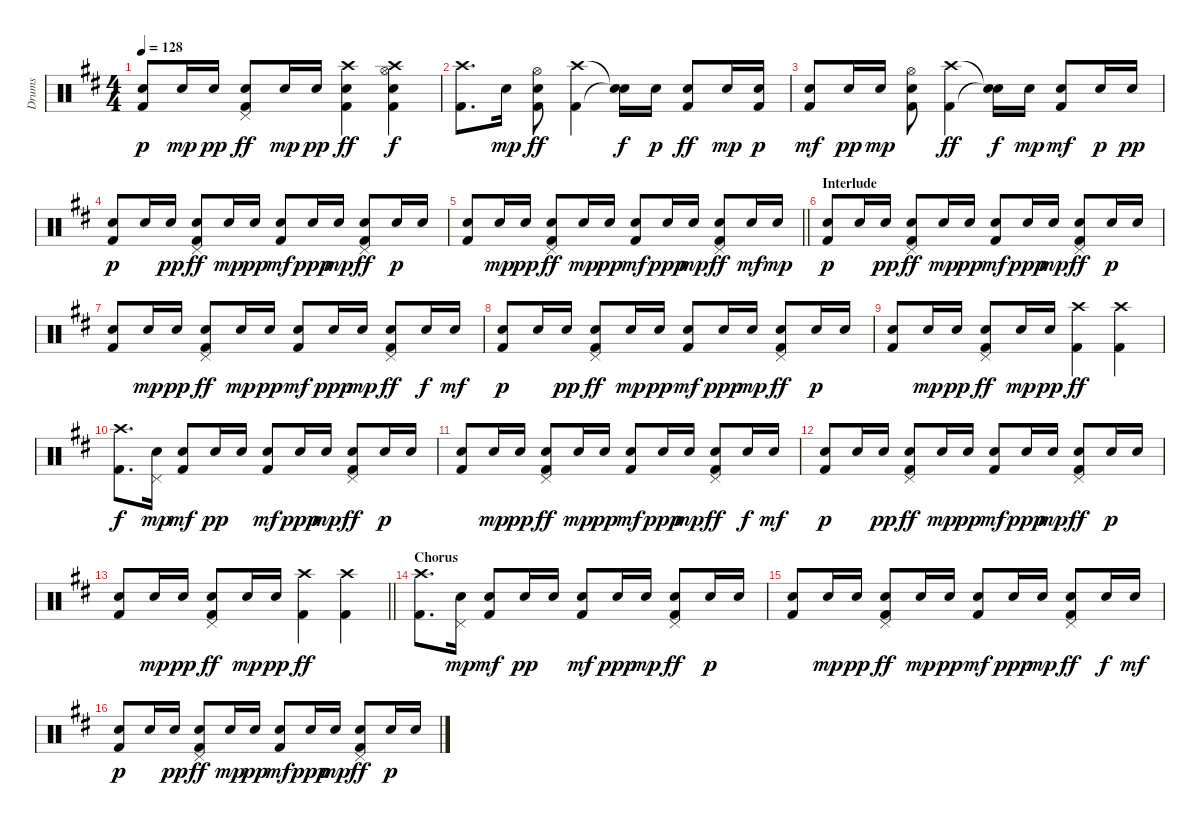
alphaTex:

\track ("Drums" "Drums") {instrument percussion}
\staff {score}
\articulation defaults
\ts (4 4)
\tempo 128
\clef neutral
\ks d
("Kick (hit) 2" "Snare (hit) 2").8{dy p} "Snare (hit) 2".16{dy mp} "Snare (hit) 2".16{dy pp} ("Kick (hit) 2" "Snare (hit) 2" "Pedal Hi-Hat (hit)").8{dy ff} "Snare (hit) 2".16{dy mp} "Snare (hit) 2".16{dy pp} ("Kick (hit) 2" "Snare (hit) 2" "Crash high (hit)").4{dy ff} ("Kick (hit) 2" "Snare (hit) 2" "Hi-Hat (open)" "Crash high (hit)").4{dy f} |
("Kick (hit) 2" "Crash high (hit)").8{d} "Snare (hit) 2".16{dy mp} ("Kick (hit) 2" "Snare (hit) 2" "Hi-Hat (open)").8{dy ff} ("Kick (hit) 2" "Crash high (hit)").4 ("Snare (hit)"{t} "Snare (hit)"{t}).16{dy f} "Snare (hit) 2".16{dy p} ("Kick (hit) 2" "Snare (hit) 2").8{dy ff} "Snare (hit) 2".16{dy mp} ("Kick (hit) 2" "Snare (hit) 2").16{dy p} |
("Kick (hit) 2" "Snare (hit) 2").8{dy mf} "Snare (hit) 2".16{dy pp} "Snare (hit) 2".16{dy mp} ("Kick (hit) 2" "Snare (hit) 2" "Hi-Hat (open)").8 ("Kick (hit) 2" "Crash high (hit)").4{dy ff} ("Snare (hit)"{t} "Snare (hit)"{t}).16{dy f} "Snare (hit) 2".16{dy mp} ("Kick (hit) 2" "Snare (hit) 2").8{dy mf} "Snare (hit) 2".16{dy p} "Snare (hit) 2".16{dy pp} |
("Kick (hit) 2" "Snare (hit) 2").8{dy p} "Snare (hit) 2".16 "Snare (hit) 2".16{dy pp} ("Kick (hit) 2" "Snare (hit) 2" "Pedal Hi-Hat (hit)").8{dy ff} "Snare (hit) 2".16{dy mp} "Snare (hit) 2".16{dy pp} ("Kick (hit) 2" "Snare (hit) 2").8{dy mf} "Snare (hit) 2".16{dy ppp} "Snare (hit) 2".16{dy mp} ("Kick (hit) 2" "Snare (hit) 2" "Pedal Hi-Hat (hit)").8{dy ff} "Snare (hit) 2".16{dy p} "Snare (hit) 2".16 |
\barLineRight lightlight
("Kick (hit) 2" "Snare (hit) 2").8 "Snare (hit) 2".16{dy mp} "Snare (hit) 2".16{dy pp} ("Kick (hit) 2" "Snare (hit) 2" "Pedal Hi-Hat (hit)").8{dy ff} "Snare (hit) 2".16{dy mp} "Snare (hit) 2".16{dy pp} ("Kick (hit) 2" "Snare (hit) 2").8{dy mf} "Snare (hit) 2".16{dy ppp} "Snare (hit) 2".16{dy mp} ("Kick (hit) 2" "Snare (hit) 2" "Pedal Hi-Hat (hit)").8{dy ff} "Snare (hit) 2".16{dy mf} "Snare (hit) 2".16{dy mp} |
\section ("" "Interlude")
("Kick (hit) 2" "Snare (hit) 2").8{dy p} "Snare (hit) 2".16 "Snare (hit) 2".16{dy pp} ("Kick (hit) 2" "Snare (hit) 2" "Pedal Hi-Hat (hit)").8{dy ff} "Snare (hit) 2".16{dy mp} "Snare (hit) 2".16{dy pp} ("Kick (hit) 2" "Snare (hit) 2").8{dy mf} "Snare (hit) 2".16{dy ppp} "Snare (hit) 2".16{dy mp} ("Kick (hit) 2" "Snare (hit) 2" "Pedal Hi-Hat (hit)").8{dy ff} "Snare (hit) 2".16{dy p} "Snare (hit) 2".16 |
("Kick (hit) 2" "Snare (hit) 2").8 "Snare (hit) 2".16{dy mp} "Snare (hit) 2".16{dy pp} ("Kick (hit) 2" "Snare (hit) 2" "Pedal Hi-Hat (hit)").8{dy ff} "Snare (hit) 2".16{dy mp} "Snare (hit) 2".16{dy pp} ("Kick (hit) 2" "Snare (hit) 2").8{dy mf} "Snare (hit) 2".16{dy ppp} "Snare (hit) 2".16{dy mp} ("Kick (hit) 2" "Snare (hit) 2" "Pedal Hi-Hat (hit)").8{dy ff} "Snare (hit) 2".16{dy f} "Snare (hit) 2".16{dy mf} |
("Kick (hit) 2" "Snare (hit) 2").8{dy p} "Snare (hit) 2".16 "Snare (hit) 2".16{dy pp} ("Kick (hit) 2" "Snare (hit) 2" "Pedal Hi-Hat (hit)").8{dy ff} "Snare (hit) 2".16{dy mp} "Snare (hit) 2".16{dy pp} ("Kick (hit) 2" "Snare (hit) 2").8{dy mf} "Snare (hit) 2".16{dy ppp} "Snare (hit) 2".16{dy mp} ("Kick (hit) 2" "Snare (hit) 2" "Pedal Hi-Hat (hit)").8{dy ff} "Snare (hit) 2".16{dy p} "Snare (hit) 2".16 |
("Kick (hit) 2" "Snare (hit) 2").8 "Snare (hit) 2".16{dy mp} "Snare (hit) 2".16{dy pp} ("Kick (hit) 2" "Snare (hit) 2" "Pedal Hi-Hat (hit)").8{dy ff} "Snare (hit) 2".16{dy mp} "Snare (hit) 2".16{dy pp} ("Kick (hit) 2" "Crash high (hit)").4{dy ff} ("Kick (hit) 2" "Crash high (hit)").4 |
("Kick (hit) 2" "Crash high (hit)").8{d dy f} ("Snare (hit) 2" "Pedal Hi-Hat (hit)").16{dy mp} ("Kick (hit) 2" "Snare (hit) 2").8{dy mf} "Snare (hit) 2".16{dy pp} "Snare (hit) 2".16 ("Kick (hit) 2" "Snare (hit) 2").8{dy mf} "Snare (hit) 2".16{dy ppp} "Snare (hit) 2".16{dy mp} ("Kick (hit) 2" "Snare (hit) 2" "Pedal Hi-Hat (hit)").8{dy ff} "Snare (hit) 2".16{dy p} "Snare (hit) 2".16 |
("Kick (hit) 2" "Snare (hit) 2").8 "Snare (hit) 2".16{dy mp} "Snare (hit) 2".16{dy pp} ("Kick (hit) 2" "Snare (hit) 2" "Pedal Hi-Hat (hit)").8{dy ff} "Snare (hit) 2".16{dy mp} "Snare (hit) 2".16{dy pp} ("Kick (hit) 2" "Snare (hit) 2").8{dy mf} "Snare (hit) 2".16{dy ppp} "Snare (hit) 2".16{dy mp} ("Kick (hit) 2" "Snare (hit) 2" "Pedal Hi-Hat (hit)").8{dy ff} "Snare (hit) 2".16{dy f} "Snare (hit) 2".16{dy mf} |
("Kick (hit) 2" "Snare (hit) 2").8{dy p} "Snare (hit) 2".16 "Snare (hit) 2".16{dy pp} ("Kick (hit) 2" "Snare (hit) 2" "Pedal Hi-Hat (hit)").8{dy ff} "Snare (hit) 2".16{dy mp} "Snare (hit) 2".16{dy pp} ("Kick (hit) 2" "Snare (hit) 2").8{dy mf} "Snare (hit) 2".16{dy ppp} "Snare (hit) 2".16{dy mp} ("Kick (hit) 2" "Snare (hit) 2" "Pedal Hi-Hat (hit)").8{dy ff} "Snare (hit) 2".16{dy p} "Snare (hit) 2".16 |
\barLineRight lightlight
("Kick (hit) 2" "Snare (hit) 2").8 "Snare (hit) 2".16{dy mp} "Snare (hit) 2".16{dy pp} ("Kick (hit) 2" "Snare (hit) 2" "Pedal Hi-Hat (hit)").8{dy ff} "Snare (hit) 2".16{dy mp} "Snare (hit) 2".16{dy pp} ("Kick (hit) 2" "Crash high (hit)").4{dy ff} ("Kick (hit) 2" "Crash high (hit)").4 |
\section ("" "Chorus")
("Kick (hit) 2" "Crash high (hit)").8{d} ("Snare (hit) 2" "Pedal Hi-Hat (hit)").16{dy mp} ("Kick (hit) 2" "Snare (hit) 2").8{dy mf} "Snare (hit) 2".16{dy pp} "Snare (hit) 2".16 ("Kick (hit) 2" "Snare (hit) 2").8{dy mf} "Snare (hit) 2".16{dy ppp} "Snare (hit) 2".16{dy mp} ("Kick (hit) 2" "Snare (hit) 2" "Pedal Hi-Hat (hit)").8{dy ff} "Snare (hit) 2".16{dy p} "Snare (hit) 2".16 |
("Kick (hit) 2" "Snare (hit) 2").8 "Snare (hit) 2".16{dy mp} "Snare (hit) 2".16{dy pp} ("Kick (hit) 2" "Snare (hit) 2" "Pedal Hi-Hat (hit)").8{dy ff} "Snare (hit) 2".16{dy mp} "Snare (hit) 2".16{dy pp} ("Kick (hit) 2" "Snare (hit) 2").8{dy mf} "Snare (hit) 2".16{dy ppp} "Snare (hit) 2".16{dy mp} ("Kick (hit) 2" "Snare (hit) 2" "Pedal Hi-Hat (hit)").8{dy ff} "Snare (hit) 2".16{dy f} "Snare (hit) 2".16{dy mf} |
("Kick (hit) 2" "Snare (hit) 2").8{dy p} "Snare (hit) 2".16 "Snare (hit) 2".16{dy pp} ("Kick (hit) 2" "Snare (hit) 2" "Pedal Hi-Hat (hit)").8{dy ff} "Snare (hit) 2".16{dy mp} "Snare (hit) 2".16{dy pp} ("Kick (hit) 2" "Snare (hit) 2").8{dy mf} "Snare (hit) 2".16{dy ppp} "Snare (hit) 2".16{dy mp} ("Kick (hit) 2" "Snare (hit) 2" "Pedal Hi-Hat (hit)").8{dy ff} "Snare (hit) 2".16{dy p} "Snare (hit) 2".16
